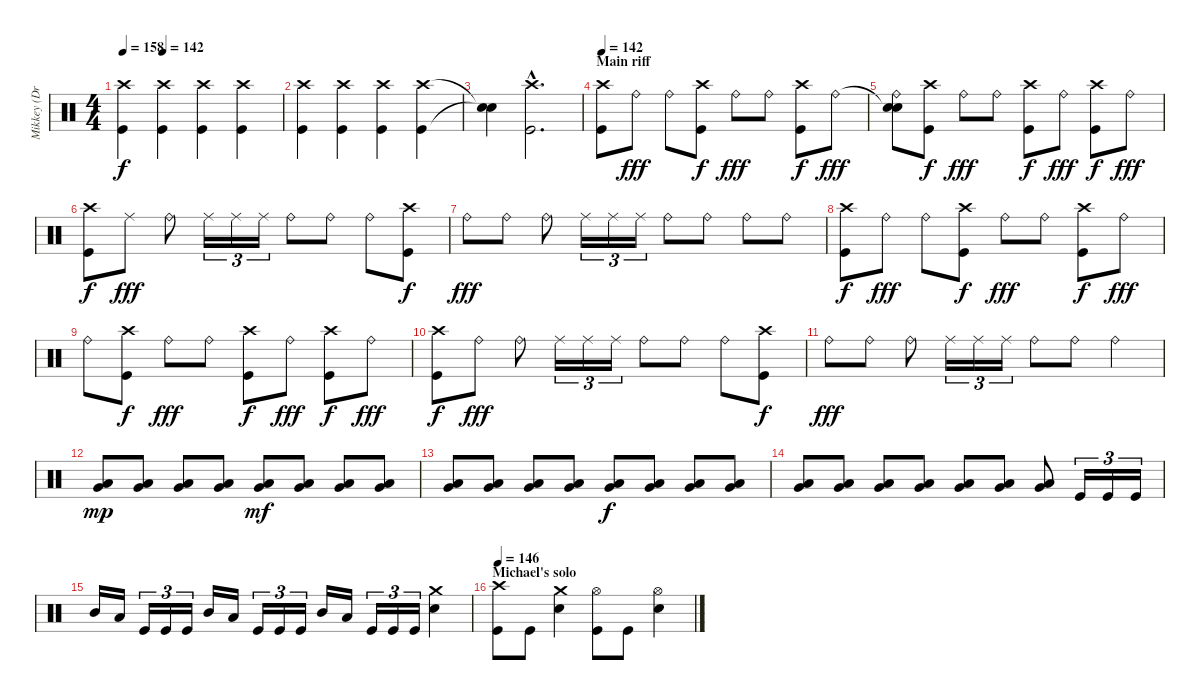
\track ("Mikkey (Drums)" "Mikkey (Dr") {instrument percussion}
\staff {score}
\articulation defaults
\ts (4 4)
\tempo 158
\tempo (142 0.25)
\clef neutral
\ks c
("Crash high (hit)" "Kick (hit)").4{dy f} ("Crash high (hit)" "Kick (hit)").4 ("Crash high (hit)" "Kick (hit)").4 ("Crash high (hit)" "Kick (hit)").4 |
("Crash high (hit)" "Kick (hit)").4 ("Crash high (hit)" "Kick (hit)").4 ("Crash high (hit)" "Kick (hit)").4 ("Crash high (hit)" "Kick (hit)").4 |
("Snare (hit)"{t} "Snare (hit)"{t}).4 ("Crash high (hit)"{hac} "Kick (hit)"{hac}).2{d} |
\section ("" "Main riff")
\tempo 142
("Crash high (hit)" "Kick (hit)").8 "Ride (bell)".8{dy fff} "Ride (bell)".8 ("Crash high (hit)" "Kick (hit)").8{dy f} "Ride (bell)".8{dy fff} "Ride (bell)".8 ("Crash high (hit)" "Kick (hit)").8{dy f} "Ride (bell)".8{dy fff} |
("Snare (hit)"{t} "Ride (bell)" "Snare (hit)").8 ("Crash high (hit)" "Kick (hit)").8{dy f} "Ride (bell)".8{dy fff} "Ride (bell)".8 ("Crash high (hit)" "Kick (hit)").8{dy f} "Ride (bell)".8{dy fff} ("Crash high (hit)" "Kick (hit)").8{dy f} "Ride (bell)".8{dy fff} |
("Crash high (hit)" "Kick (hit)").8{dy f} "Ride (middle)".8{dy fff} "Ride (bell)".8 "Ride (middle)".16{tu (3 2)} "Ride (middle)".16{tu (3 2)} "Ride (middle)".16{tu (3 2)} "Ride (bell)".8 "Ride (bell)".8 "Ride (bell)".8 ("Crash high (hit)" "Kick (hit)").8{dy f} |
"Ride (bell)".8{dy fff} "Ride (bell)".8 "Ride (bell)".8 "Ride (middle)".16{tu (3 2)} "Ride (middle)".16{tu (3 2)} "Ride (middle)".16{tu (3 2)} "Ride (bell)".8 "Ride (bell)".8 "Ride (bell)".8 "Ride (bell)".8 |
("Crash high (hit)" "Kick (hit)").8{dy f} "Ride (bell)".8{dy fff} "Ride (bell)".8 ("Crash high (hit)" "Kick (hit)").8{dy f} "Ride (bell)".8{dy fff} "Ride (bell)".8 ("Crash high (hit)" "Kick (hit)").8{dy f} "Ride (bell)".8{dy fff} |
"Ride (bell)".8 ("Crash high (hit)" "Kick (hit)").8{dy f} "Ride (bell)".8{dy fff} "Ride (bell)".8 ("Crash high (hit)" "Kick (hit)").8{dy f} "Ride (bell)".8{dy fff} ("Crash high (hit)" "Kick (hit)").8{dy f} "Ride (bell)".8{dy fff} |
("Crash high (hit)" "Kick (hit)").8{dy f} "Ride (bell)".8{dy fff} "Ride (bell)".8 "Ride (middle)".16{tu (3 2)} "Ride (middle)".16{tu (3 2)} "Ride (middle)".16{tu (3 2)} "Ride (bell)".8 "Ride (bell)".8 "Ride (bell)".8 ("Crash high (hit)" "Kick (hit)").8{dy f} |
"Ride (bell)".8{dy fff} "Ride (bell)".8 "Ride (bell)".8 "Ride (middle)".16{tu (3 2)} "Ride (middle)".16{tu (3 2)} "Ride (middle)".16{tu (3 2)} "Ride (bell)".8 "Ride (bell)".8 "Ride (bell)".4 |
("Low Tom (hit)" "Very Low Tom (hit)").8{bu 240 dy mp} ("Low Tom (hit)" "Very Low Tom (hit)").8{bu 240} ("Low Tom (hit)" "Very Low Tom (hit)").8{bu 240} ("Low Tom (hit)" "Very Low Tom (hit)").8{bu 240} ("Low Tom (hit)" "Very Low Tom (hit)").8{bu 240 dy mf} ("Low Tom (hit)" "Very Low Tom (hit)").8{bu 240} ("Low Tom (hit)" "Very Low Tom (hit)").8{bu 240} ("Low Tom (hit)" "Very Low Tom (hit)").8{bu 240} |
("Low Tom (hit)" "Very Low Tom (hit)").8{bu 240} ("Low Tom (hit)" "Very Low Tom (hit)").8{bu 240} ("Low Tom (hit)" "Very Low Tom (hit)").8{bu 240} ("Low Tom (hit)" "Very Low Tom (hit)").8{bu 240} ("Low Tom (hit)" "Very Low Tom (hit)").8{bu 240 dy f} ("Low Tom (hit)" "Very Low Tom (hit)").8{bu 240} ("Low Tom (hit)" "Very Low Tom (hit)").8{bu 240} ("Low Tom (hit)" "Very Low Tom (hit)").8{bu 240} |
("Low Tom (hit)" "Very Low Tom (hit)").8{bu 240} ("Low Tom (hit)" "Very Low Tom (hit)").8{bu 240} ("Low Tom (hit)" "Very Low Tom (hit)").8{bu 240} ("Low Tom (hit)" "Very Low Tom (hit)").8{bu 240} ("Low Tom (hit)" "Very Low Tom (hit)").8{bu 240} ("Low Tom (hit)" "Very Low Tom (hit)").8{bu 240} ("Low Tom (hit)" "Very Low Tom (hit)").8{bu 240} "Kick (hit)".16{tu (3 2)} "Kick (hit)".16{tu (3 2)} "Kick (hit)".16{tu (3 2)} |
"Mid Tom (hit)".16 "Low Tom (hit)".16 "Kick (hit)".16{tu (3 2)} "Kick (hit)".16{tu (3 2)} "Kick (hit)".16{tu (3 2)} "Mid Tom (hit)".16 "Low Tom (hit)".16 "Kick (hit)".16{tu (3 2)} "Kick (hit)".16{tu (3 2)} "Kick (hit)".16{tu (3 2)} "Mid Tom (hit)".16 "Low Tom (hit)".16 "Kick (hit)".16{tu (3 2)} "Kick (hit)".16{tu (3 2)} "Kick (hit)".16{tu (3 2)} ("Crash medium (hit)" "Electric Snare (hit)").4 |
\section ("" "Michael's solo")
\tempo 146
("Crash high (hit)" "Kick (hit)").8 "Kick (hit)".8 ("Crash medium (hit)" "Electric Snare (hit)").4 ("Hi-Hat (open)" "Kick (hit)").8 "Kick (hit)".8 ("Hi-Hat (open)" "Electric Snare (hit)").4
